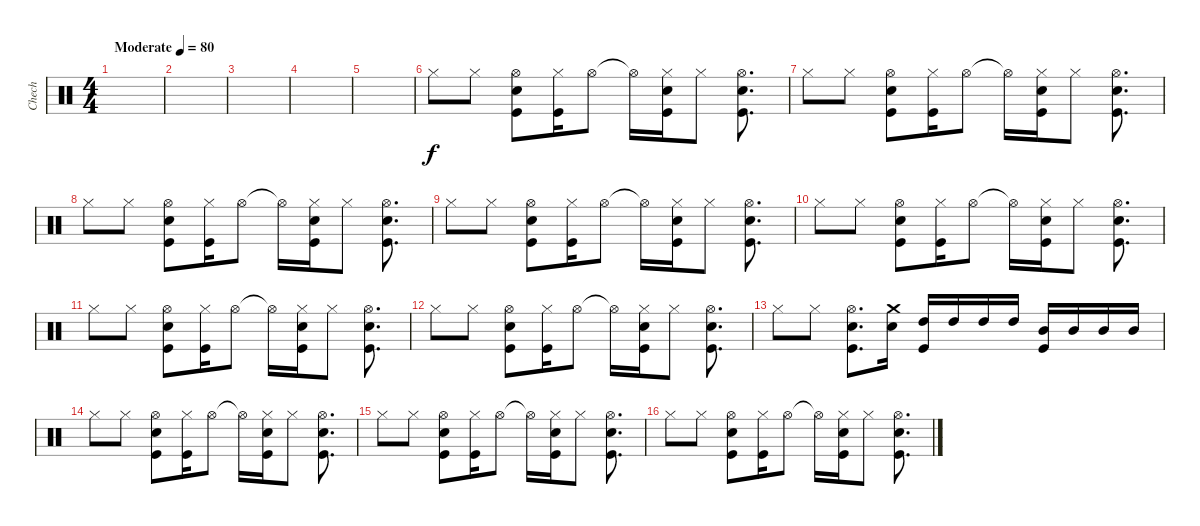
\track ("Chech" "Chech") {instrument percussion}
\staff {score}
\articulation defaults
\ts (4 4)
\tempo (80 "Moderate")
\clef neutral
\ks c
|
|
|
|
|
"Hi-Hat (closed)".8 "Hi-Hat (closed)".8 ("Hi-Hat (open)" "Electric Snare (hit)" "Kick (hit)").8 ("Hi-Hat (closed)" "Kick (hit)").16 "Hi-Hat (open)".8 "Hi-Hat (open)"{t}.16 ("Hi-Hat (closed)" "Electric Snare (hit)" "Kick (hit)").16 "Hi-Hat (closed)".8 ("Hi-Hat (open)" "Electric Snare (hit)" "Kick (hit)").8{d} |
"Hi-Hat (closed)".8 "Hi-Hat (closed)".8 ("Hi-Hat (open)" "Electric Snare (hit)" "Kick (hit)").8 ("Hi-Hat (closed)" "Kick (hit)").16 "Hi-Hat (open)".8 "Hi-Hat (open)"{t}.16 ("Hi-Hat (closed)" "Electric Snare (hit)" "Kick (hit)").16 "Hi-Hat (closed)".8 ("Hi-Hat (open)" "Electric Snare (hit)" "Kick (hit)").8{d} |
"Hi-Hat (closed)".8 "Hi-Hat (closed)".8 ("Hi-Hat (open)" "Electric Snare (hit)" "Kick (hit)").8 ("Hi-Hat (closed)" "Kick (hit)").16 "Hi-Hat (open)".8 "Hi-Hat (open)"{t}.16 ("Hi-Hat (closed)" "Electric Snare (hit)" "Kick (hit)").16 "Hi-Hat (closed)".8 ("Hi-Hat (open)" "Electric Snare (hit)" "Kick (hit)").8{d} |
"Hi-Hat (closed)".8 "Hi-Hat (closed)".8 ("Hi-Hat (open)" "Electric Snare (hit)" "Kick (hit)").8 ("Hi-Hat (closed)" "Kick (hit)").16 "Hi-Hat (open)".8 "Hi-Hat (open)"{t}.16 ("Hi-Hat (closed)" "Electric Snare (hit)" "Kick (hit)").16 "Hi-Hat (closed)".8 ("Hi-Hat (open)" "Electric Snare (hit)" "Kick (hit)").8{d} |
"Hi-Hat (closed)".8 "Hi-Hat (closed)".8 ("Hi-Hat (open)" "Electric Snare (hit)" "Kick (hit)").8 ("Hi-Hat (closed)" "Kick (hit)").16 "Hi-Hat (open)".8 "Hi-Hat (open)"{t}.16 ("Hi-Hat (closed)" "Electric Snare (hit)" "Kick (hit)").16 "Hi-Hat (closed)".8 ("Hi-Hat (open)" "Electric Snare (hit)" "Kick (hit)").8{d} |
"Hi-Hat (closed)".8 "Hi-Hat (closed)".8 ("Hi-Hat (open)" "Electric Snare (hit)" "Kick (hit)").8 ("Hi-Hat (closed)" "Kick (hit)").16 "Hi-Hat (open)".8 "Hi-Hat (open)"{t}.16 ("Hi-Hat (closed)" "Electric Snare (hit)" "Kick (hit)").16 "Hi-Hat (closed)".8 ("Hi-Hat (open)" "Electric Snare (hit)" "Kick (hit)").8{d} |
"Hi-Hat (closed)".8 "Hi-Hat (closed)".8 ("Hi-Hat (open)" "Electric Snare (hit)" "Kick (hit)").8 ("Hi-Hat (closed)" "Kick (hit)").16 "Hi-Hat (open)".8 "Hi-Hat (open)"{t}.16 ("Hi-Hat (closed)" "Electric Snare (hit)" "Kick (hit)").16 "Hi-Hat (closed)".8 ("Hi-Hat (open)" "Electric Snare (hit)" "Kick (hit)").8{d} |
"Hi-Hat (closed)".8 "Hi-Hat (closed)".8 ("Hi-Hat (open)" "Electric Snare (hit)" "Kick (hit)").8{d} ("Crash medium (hit)" "Electric Snare (hit)").16 ("High Tom (hit)" "Kick (hit)").16 "High Tom (hit)".16 "High Tom (hit)".16 "High Tom (hit)".16 ("Mid Tom (hit)" "Kick (hit)").16 "Mid Tom (hit)".16 "Mid Tom (hit)".16 "Mid Tom (hit)".16 |
"Hi-Hat (closed)".8 "Hi-Hat (closed)".8 ("Hi-Hat (open)" "Electric Snare (hit)" "Kick (hit)").8 ("Hi-Hat (closed)" "Kick (hit)").16 "Hi-Hat (open)".8 "Hi-Hat (open)"{t}.16 ("Hi-Hat (closed)" "Electric Snare (hit)" "Kick (hit)").16 "Hi-Hat (closed)".8 ("Hi-Hat (open)" "Electric Snare (hit)" "Kick (hit)").8{d} |
"Hi-Hat (closed)".8 "Hi-Hat (closed)".8 ("Hi-Hat (open)" "Electric Snare (hit)" "Kick (hit)").8 ("Hi-Hat (closed)" "Kick (hit)").16 "Hi-Hat (open)".8 "Hi-Hat (open)"{t}.16 ("Hi-Hat (closed)" "Electric Snare (hit)" "Kick (hit)").16 "Hi-Hat (closed)".8 ("Hi-Hat (open)" "Electric Snare (hit)" "Kick (hit)").8{d} |
"Hi-Hat (closed)".8 "Hi-Hat (closed)".8 ("Hi-Hat (open)" "Electric Snare (hit)" "Kick (hit)").8 ("Hi-Hat (closed)" "Kick (hit)").16 "Hi-Hat (open)".8 "Hi-Hat (open)"{t}.16 ("Hi-Hat (closed)" "Electric Snare (hit)" "Kick (hit)").16 "Hi-Hat (closed)".8 ("Hi-Hat (open)" "Electric Snare (hit)" "Kick (hit)").8{d}
